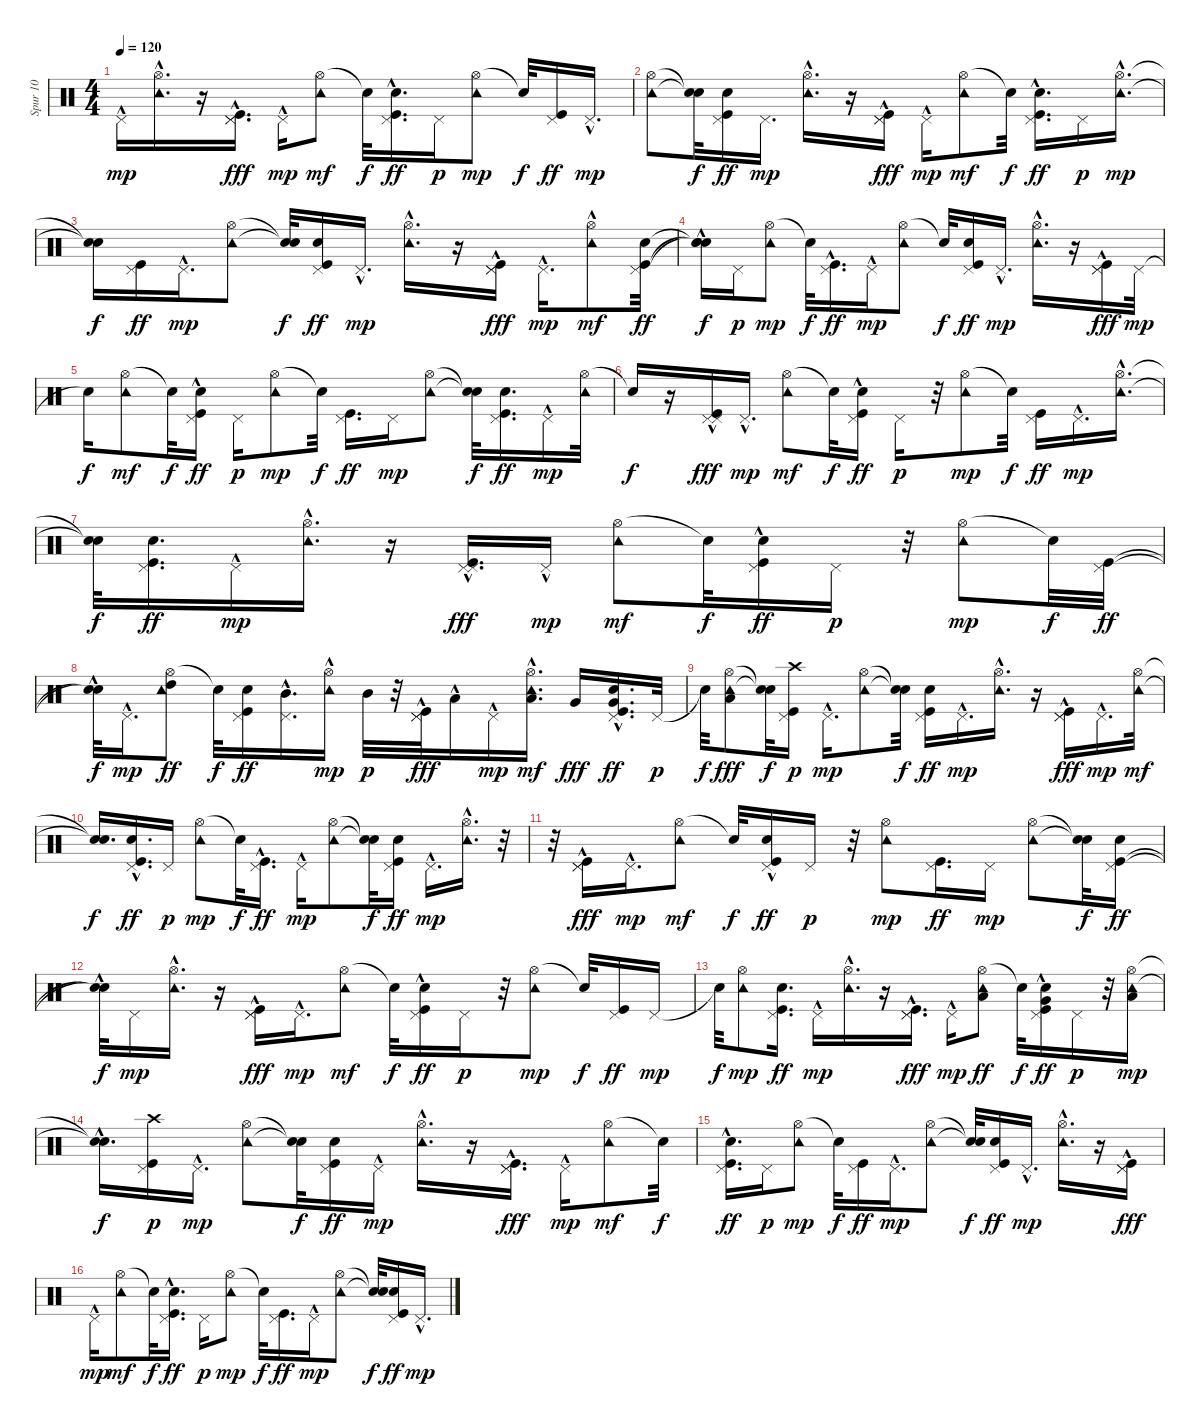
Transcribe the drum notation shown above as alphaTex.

\track ("Spur 10" "Spur 10") {instrument percussion}
\staff {score}
\articulation defaults
\ts (4 4)
\tempo 120
\clef neutral
\ks c "Pedal Hi-Hat (hit)"{hac}.16{dy mp}
("Hi-Hat (open)" "Tambourine (hit)"{hac}).16{d} r.16 ("Pedal Hi-Hat (hit)" "Pedal Hi-Hat (hit)" "Kick (hit)"{hac}).16{d dy fff} "Pedal Hi-Hat (hit)"{hac}.16{dy mp} ("Hi-Hat (open)" "Tambourine (hit)").8{dy mf} "Snare (hit)"{t}.32{dy f} ("Pedal Hi-Hat (hit)" "Kick (hit)"{hac} "Snare (hit) 2"{hac}).16{d dy ff} "Pedal Hi-Hat (hit)".16{dy p} ("Hi-Hat (open)" "Tambourine (hit)").8{dy mp} "Snare (hit)"{t}.32{dy f} ("Pedal Hi-Hat (hit)" "Kick (hit)").16{dy ff} "Pedal Hi-Hat (hit)"{hac}.16{d dy mp} |
("Hi-Hat (open)" "Tambourine (hit)").8 ("Snare (hit)"{t} "Snare (hit)"{t}).32{dy f} ("Pedal Hi-Hat (hit)" "Kick (hit)" "Snare (hit) 2").16{dy ff} "Pedal Hi-Hat (hit)".16{d dy mp} ("Hi-Hat (open)" "Tambourine (hit)"{hac}).16{d} r.16 ("Pedal Hi-Hat (hit)" "Pedal Hi-Hat (hit)" "Kick (hit)"{hac}).16{dy fff} "Pedal Hi-Hat (hit)"{hac}.16{dy mp} ("Hi-Hat (open)" "Tambourine (hit)").8{dy mf} "Snare (hit)"{t}.32{dy f} ("Pedal Hi-Hat (hit)" "Kick (hit)" "Snare (hit) 2"{hac}).16{d dy ff} "Pedal Hi-Hat (hit)".16{dy p} ("Hi-Hat (open)"{hac} "Tambourine (hit)"{hac}).16{d dy mp} |
("Snare (hit)"{t} "Snare (hit)"{t}).16{dy f} ("Pedal Hi-Hat (hit)" "Kick (hit)").16{dy ff} "Pedal Hi-Hat (hit)"{hac}.16{d dy mp} ("Hi-Hat (open)" "Tambourine (hit)").8 ("Snare (hit)"{t} "Snare (hit)"{t}).32{dy f} ("Pedal Hi-Hat (hit)" "Kick (hit)" "Snare (hit) 2").16{dy ff} "Pedal Hi-Hat (hit)"{hac}.16{d dy mp} ("Hi-Hat (open)" "Tambourine (hit)"{hac}).16{d} r.16 ("Pedal Hi-Hat (hit)" "Pedal Hi-Hat (hit)" "Kick (hit)"{hac}).16{dy fff} "Pedal Hi-Hat (hit)"{hac}.16{d dy mp} ("Hi-Hat (open)" "Tambourine (hit)"{hac}).8{dy mf} ("Pedal Hi-Hat (hit)" "Kick (hit)" "Snare (hit) 2").32{dy ff} |
("Snare (hit)"{t} "Snare (hit)"{hac t} "Snare (hit)"{hac t}).16{dy f} "Pedal Hi-Hat (hit)".16{dy p} ("Hi-Hat (open)" "Tambourine (hit)").8{dy mp} "Snare (hit)"{t}.32{dy f} ("Pedal Hi-Hat (hit)" "Kick (hit)"{hac}).16{d dy ff} "Pedal Hi-Hat (hit)"{hac}.16{dy mp} ("Hi-Hat (open)" "Tambourine (hit)").8 "Snare (hit)"{t}.32{dy f} ("Pedal Hi-Hat (hit)" "Kick (hit)" "Snare (hit) 2").16{dy ff} "Pedal Hi-Hat (hit)"{hac}.16{d dy mp} ("Hi-Hat (open)" "Tambourine (hit)"{hac}).16{d} r.16 ("Pedal Hi-Hat (hit)" "Pedal Hi-Hat (hit)" "Kick (hit)"{hac}).16{dy fff} "Pedal Hi-Hat (hit)".32{dy mp} |
"Snare (hit)"{t}.16{dy f} ("Hi-Hat (open)" "Tambourine (hit)").8{dy mf} "Snare (hit)"{t}.32{dy f} ("Pedal Hi-Hat (hit)" "Kick (hit)"{hac} "Snare (hit) 2"{hac}).16{dy ff} "Pedal Hi-Hat (hit)".16{dy p} ("Hi-Hat (open)" "Tambourine (hit)").8{dy mp} "Snare (hit)"{t}.32{dy f} ("Pedal Hi-Hat (hit)" "Kick (hit)").16{d dy ff} "Pedal Hi-Hat (hit)".16{dy mp} ("Hi-Hat (open)" "Tambourine (hit)").8 ("Snare (hit)"{t} "Snare (hit)"{t}).32{dy f} ("Pedal Hi-Hat (hit)" "Kick (hit)" "Snare (hit) 2").16{d dy ff} "Pedal Hi-Hat (hit)"{hac}.16{dy mp} ("Hi-Hat (open)" "Tambourine (hit)").32 |
"Snare (hit)"{t}.16{dy f} r.16 ("Pedal Hi-Hat (hit)" "Pedal Hi-Hat (hit)" "Kick (hit)"{hac}).16{dy fff} "Pedal Hi-Hat (hit)"{hac}.16{d dy mp} ("Hi-Hat (open)" "Tambourine (hit)").8{dy mf} "Snare (hit)"{t}.32{dy f} ("Pedal Hi-Hat (hit)" "Kick (hit)"{hac} "Snare (hit) 2"{hac}).16{dy ff} "Pedal Hi-Hat (hit)".16{dy p} r.32 ("Hi-Hat (open)" "Tambourine (hit)").8{dy mp} "Snare (hit)"{t}.32{dy f} ("Pedal Hi-Hat (hit)" "Kick (hit)").16{dy ff} "Pedal Hi-Hat (hit)"{hac}.16{d dy mp} ("Hi-Hat (open)"{hac} "Tambourine (hit)"{hac}).16{d} |
("Snare (hit)"{t} "Snare (hit)"{t}).32{dy f} ("Pedal Hi-Hat (hit)" "Kick (hit)" "Snare (hit) 2").16{d dy ff} "Pedal Hi-Hat (hit)"{hac}.16{dy mp} ("Hi-Hat (open)" "Tambourine (hit)"{hac}).16{d} r.16 ("Pedal Hi-Hat (hit)" "Pedal Hi-Hat (hit)" "Kick (hit)"{hac}).16{d dy fff} "Pedal Hi-Hat (hit)"{hac}.16{dy mp} ("Hi-Hat (open)" "Tambourine (hit)").8{dy mf} "Snare (hit)"{t}.32{dy f} ("Pedal Hi-Hat (hit)" "Kick (hit)"{hac} "Snare (hit) 2"{hac}).16{dy ff} "Pedal Hi-Hat (hit)".16{dy p} r.32 ("Hi-Hat (open)" "Tambourine (hit)").8{dy mp} "Snare (hit)"{t}.32{dy f} ("Pedal Hi-Hat (hit)" "Kick (hit)").32{dy ff} |
("Snare (hit)"{t} "Snare (hit)"{hac t}).32{dy f} "Pedal Hi-Hat (hit)"{hac}.16{d dy mp} ("Hi-Hat (open)" "Tambourine (hit)" "High Tom (hit)").8{dy ff} "Snare (hit)"{t}.32{dy f} ("Pedal Hi-Hat (hit)" "Kick (hit)" "Snare (hit) 2").16{dy ff} ("Pedal Hi-Hat (hit)"{hac} "Mid Tom (hit)").16{d} ("Hi-Hat (open)" "Tambourine (hit)"{hac}).16{dy mp} "Mid Tom (hit)".32{dy p} r.32 ("Pedal Hi-Hat (hit)" "Pedal Hi-Hat (hit)" "Kick (hit)"{hac}).32{dy fff} "Low Tom (hit)"{hac}.16 "Pedal Hi-Hat (hit)"{hac}.16{dy mp} ("Hi-Hat (open)" "Tambourine (hit)"{hac} "Low Tom (hit)").16{d dy mf} "Very Low Tom (hit)".16{dy fff} ("Pedal Hi-Hat (hit)" "Kick (hit)" "Snare (hit) 2"{hac} "Very Low Tom (hit)").16{d dy ff} "Pedal Hi-Hat (hit)".32{dy p} |
"Snare (hit)"{t}.32{dy f} ("Hi-Hat (open)" "Tambourine (hit)" "Low Floor Tom (hit)").8{dy fff} ("Snare (hit)"{t} "Snare (hit)"{t}).32{dy f} ("Pedal Hi-Hat (hit)" "Kick (hit)" "Crash high (hit)").16{dy p} "Pedal Hi-Hat (hit)"{hac}.16{d dy mp} ("Hi-Hat (open)" "Tambourine (hit)").8 ("Snare (hit)"{t} "Snare (hit)"{t}).32{dy f} ("Pedal Hi-Hat (hit)" "Kick (hit)" "Snare (hit) 2").16{dy ff} "Pedal Hi-Hat (hit)"{hac}.16{d dy mp} ("Hi-Hat (open)" "Tambourine (hit)"{hac}).16{d} r.16 ("Pedal Hi-Hat (hit)" "Pedal Hi-Hat (hit)" "Kick (hit)"{hac}).16{dy fff} "Pedal Hi-Hat (hit)"{hac}.16{d dy mp} ("Hi-Hat (open)" "Tambourine (hit)").32{dy mf} |
("Snare (hit)"{t} "Snare (hit)"{t}).16{d dy f} ("Pedal Hi-Hat (hit)" "Kick (hit)"{hac} "Snare (hit) 2"{hac}).16{d dy ff} "Pedal Hi-Hat (hit)".16{dy p} ("Hi-Hat (open)" "Tambourine (hit)").8{dy mp} "Snare (hit)"{t}.32{dy f} ("Pedal Hi-Hat (hit)" "Kick (hit)"{hac}).16{d dy ff} "Pedal Hi-Hat (hit)"{hac}.16{dy mp} ("Hi-Hat (open)" "Tambourine (hit)").8 ("Snare (hit)"{t} "Snare (hit)"{t}).32{dy f} ("Pedal Hi-Hat (hit)" "Kick (hit)" "Snare (hit) 2").16{dy ff} "Pedal Hi-Hat (hit)"{hac}.16{d dy mp} ("Hi-Hat (open)" "Tambourine (hit)"{hac}).16{d} r.32 |
r.32 ("Pedal Hi-Hat (hit)" "Pedal Hi-Hat (hit)" "Kick (hit)"{hac}).16{dy fff} "Pedal Hi-Hat (hit)"{hac}.16{d dy mp} ("Hi-Hat (open)" "Tambourine (hit)").8{dy mf} "Snare (hit)"{t}.32{dy f} ("Pedal Hi-Hat (hit)" "Kick (hit)" "Snare (hit) 2"{hac}).16{dy ff} "Pedal Hi-Hat (hit)".16{dy p} r.32 ("Hi-Hat (open)" "Tambourine (hit)").8{dy mp} ("Pedal Hi-Hat (hit)" "Kick (hit)").16{d dy ff} "Pedal Hi-Hat (hit)".16{dy mp} ("Hi-Hat (open)" "Tambourine (hit)").8 ("Snare (hit)"{t} "Snare (hit)"{t}).32{dy f} ("Pedal Hi-Hat (hit)" "Kick (hit)" "Snare (hit) 2").16{dy ff} |
("Snare (hit)"{hac t} "Snare (hit)"{hac t}).32{dy f} "Pedal Hi-Hat (hit)".16{dy mp} ("Hi-Hat (open)" "Tambourine (hit)"{hac}).16{d} r.16 ("Pedal Hi-Hat (hit)" "Pedal Hi-Hat (hit)" "Kick (hit)"{hac}).16{dy fff} "Pedal Hi-Hat (hit)"{hac}.16{d dy mp} ("Hi-Hat (open)" "Tambourine (hit)").8{dy mf} "Snare (hit)"{t}.32{dy f} ("Pedal Hi-Hat (hit)" "Kick (hit)" "Snare (hit) 2"{hac}).16{dy ff} "Pedal Hi-Hat (hit)".16{dy p} r.32 ("Hi-Hat (open)" "Tambourine (hit)").8{dy mp} "Snare (hit)"{t}.32{dy f} ("Pedal Hi-Hat (hit)" "Kick (hit)").16{dy ff} "Pedal Hi-Hat (hit)".16{dy mp} |
"Snare (hit)"{t}.32{dy f} ("Hi-Hat (open)" "Tambourine (hit)").8{dy mp} ("Pedal Hi-Hat (hit)" "Kick (hit)" "Snare (hit) 2").16{d dy ff} "Pedal Hi-Hat (hit)"{hac}.16{dy mp} ("Hi-Hat (open)" "Tambourine (hit)"{hac}).16{d} r.16 ("Pedal Hi-Hat (hit)" "Pedal Hi-Hat (hit)" "Kick (hit)"{hac}).16{d dy fff} "Pedal Hi-Hat (hit)"{hac}.16{dy mp} ("Hi-Hat (open)" "Tambourine (hit)" "Low Tom (hit)").8{dy ff} "Snare (hit)"{t}.32{dy f} ("Pedal Hi-Hat (hit)" "Kick (hit)"{hac} "Snare (hit) 2"{hac} "Very Low Tom (hit)").16{dy ff} "Pedal Hi-Hat (hit)".16{dy p} r.32 ("Hi-Hat (open)" "Tambourine (hit)" "Low Floor Tom (hit)").16{dy mp} |
("Snare (hit)"{hac t} "Snare (hit)"{t}).16{d dy f} ("Pedal Hi-Hat (hit)" "Kick (hit)" "Crash high (hit)").16{dy p} "Pedal Hi-Hat (hit)"{hac}.16{d dy mp} ("Hi-Hat (open)" "Tambourine (hit)").8 ("Snare (hit)"{t} "Snare (hit)"{t}).32{dy f} ("Pedal Hi-Hat (hit)" "Kick (hit)" "Snare (hit) 2").16{dy ff} "Pedal Hi-Hat (hit)"{hac}.16{dy mp} ("Hi-Hat (open)" "Tambourine (hit)"{hac}).16{d} r.16 ("Pedal Hi-Hat (hit)" "Pedal Hi-Hat (hit)" "Kick (hit)"{hac}).16{d dy fff} "Pedal Hi-Hat (hit)"{hac}.16{dy mp} ("Hi-Hat (open)" "Tambourine (hit)").8{dy mf} "Snare (hit)"{t}.32{dy f} |
("Pedal Hi-Hat (hit)" "Kick (hit)"{hac} "Snare (hit) 2"{hac}).16{d dy ff} "Pedal Hi-Hat (hit)".16{dy p} ("Hi-Hat (open)" "Tambourine (hit)").8{dy mp} "Snare (hit)"{t}.32{dy f} ("Pedal Hi-Hat (hit)" "Kick (hit)").16{dy ff} "Pedal Hi-Hat (hit)"{hac}.16{d dy mp} ("Hi-Hat (open)" "Tambourine (hit)").8 ("Snare (hit)"{t} "Snare (hit)"{t}).32{dy f} ("Pedal Hi-Hat (hit)" "Kick (hit)" "Snare (hit) 2").16{dy ff} "Pedal Hi-Hat (hit)"{hac}.16{d dy mp} ("Hi-Hat (open)" "Tambourine (hit)"{hac}).16{d} r.16 ("Pedal Hi-Hat (hit)" "Pedal Hi-Hat (hit)" "Kick (hit)"{hac}).16{dy fff} |
"Pedal Hi-Hat (hit)"{hac}.16{dy mp} ("Hi-Hat (open)" "Tambourine (hit)").8{dy mf} "Snare (hit)"{t}.32{dy f} ("Pedal Hi-Hat (hit)" "Kick (hit)"{hac} "Snare (hit) 2"{hac}).16{d dy ff} "Pedal Hi-Hat (hit)".16{dy p} ("Hi-Hat (open)" "Tambourine (hit)").8{dy mp} "Snare (hit)"{t}.32{dy f} ("Pedal Hi-Hat (hit)" "Kick (hit)").16{d dy ff} "Pedal Hi-Hat (hit)"{hac}.16{dy mp} ("Hi-Hat (open)" "Tambourine (hit)").8 ("Snare (hit)"{t} "Snare (hit)"{t}).32{dy f} ("Pedal Hi-Hat (hit)" "Kick (hit)" "Snare (hit) 2").16{dy ff} "Pedal Hi-Hat (hit)"{hac}.16{d dy mp}
